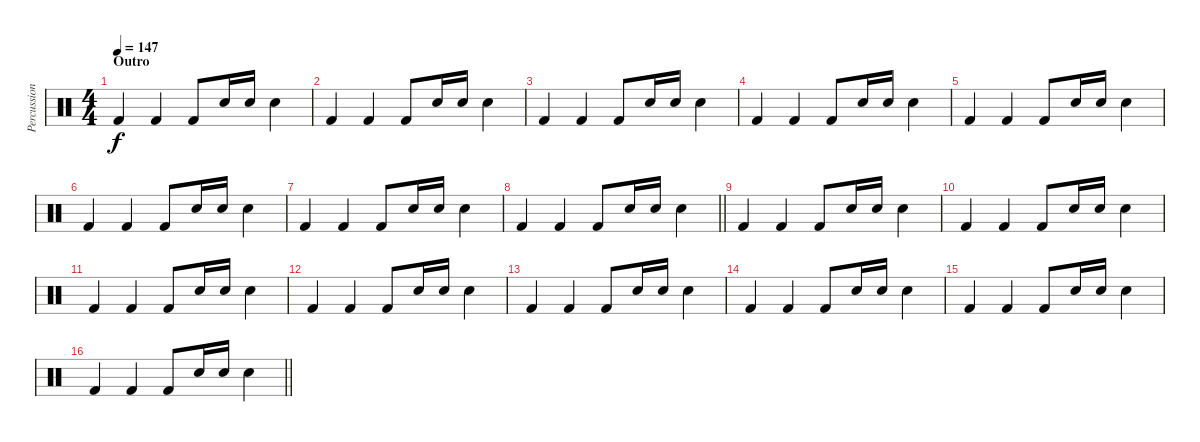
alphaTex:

\track ("Percussion" "Percussion") {instrument percussion}
\staff {score}
\articulation defaults
\ts (4 4)
\section ("" "Outro")
\tempo 147
\clef neutral
\ks c "Kick (hit) 2".4{dy f} "Kick (hit) 2".4 "Kick (hit) 2".8 "Electric Snare (hit)".16 "Electric Snare (hit)".16 "Electric Snare (hit)".4
|
"Kick (hit) 2".4 "Kick (hit) 2".4 "Kick (hit) 2".8 "Electric Snare (hit)".16 "Electric Snare (hit)".16 "Electric Snare (hit)".4 |
"Kick (hit) 2".4 "Kick (hit) 2".4 "Kick (hit) 2".8 "Electric Snare (hit)".16 "Electric Snare (hit)".16 "Electric Snare (hit)".4 |
"Kick (hit) 2".4 "Kick (hit) 2".4 "Kick (hit) 2".8 "Electric Snare (hit)".16 "Electric Snare (hit)".16 "Electric Snare (hit)".4 |
"Kick (hit) 2".4 "Kick (hit) 2".4 "Kick (hit) 2".8 "Electric Snare (hit)".16 "Electric Snare (hit)".16 "Electric Snare (hit)".4 |
"Kick (hit) 2".4 "Kick (hit) 2".4 "Kick (hit) 2".8 "Electric Snare (hit)".16 "Electric Snare (hit)".16 "Electric Snare (hit)".4 |
"Kick (hit) 2".4 "Kick (hit) 2".4 "Kick (hit) 2".8 "Electric Snare (hit)".16 "Electric Snare (hit)".16 "Electric Snare (hit)".4 |
\barLineRight lightlight "Kick (hit) 2".4 "Kick (hit) 2".4 "Kick (hit) 2".8 "Electric Snare (hit)".16 "Electric Snare (hit)".16 "Electric Snare (hit)".4
|
"Kick (hit) 2".4 "Kick (hit) 2".4 "Kick (hit) 2".8 "Electric Snare (hit)".16 "Electric Snare (hit)".16 "Electric Snare (hit)".4 |
"Kick (hit) 2".4 "Kick (hit) 2".4 "Kick (hit) 2".8 "Electric Snare (hit)".16 "Electric Snare (hit)".16 "Electric Snare (hit)".4 |
"Kick (hit) 2".4 "Kick (hit) 2".4 "Kick (hit) 2".8 "Electric Snare (hit)".16 "Electric Snare (hit)".16 "Electric Snare (hit)".4 |
"Kick (hit) 2".4 "Kick (hit) 2".4 "Kick (hit) 2".8 "Electric Snare (hit)".16 "Electric Snare (hit)".16 "Electric Snare (hit)".4 |
"Kick (hit) 2".4 "Kick (hit) 2".4 "Kick (hit) 2".8 "Electric Snare (hit)".16 "Electric Snare (hit)".16 "Electric Snare (hit)".4 |
"Kick (hit) 2".4 "Kick (hit) 2".4 "Kick (hit) 2".8 "Electric Snare (hit)".16 "Electric Snare (hit)".16 "Electric Snare (hit)".4 |
"Kick (hit) 2".4 "Kick (hit) 2".4 "Kick (hit) 2".8 "Electric Snare (hit)".16 "Electric Snare (hit)".16 "Electric Snare (hit)".4 |
\barLineRight lightlight "Kick (hit) 2".4 "Kick (hit) 2".4 "Kick (hit) 2".8 "Electric Snare (hit)".16 "Electric Snare (hit)".16 "Electric Snare (hit)".4
